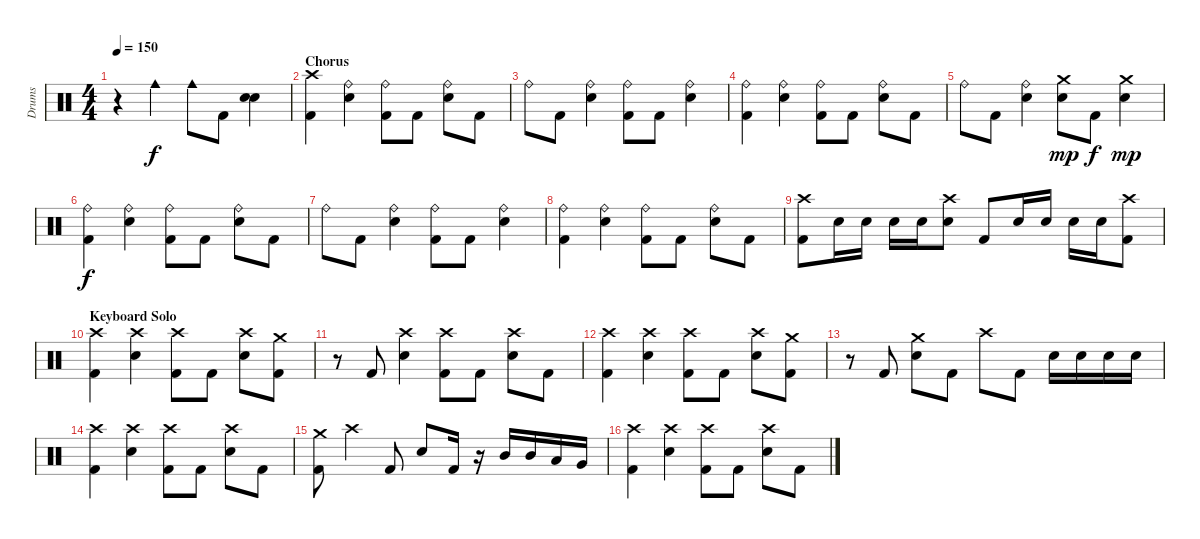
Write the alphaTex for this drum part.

\track ("Drums" "Drums") {instrument percussion}
\staff {score}
\articulation defaults
\ts (4 4)
\tempo 150
\clef neutral
\ks c
r.4{dy f} "Cowbell medium (hit)".4 "Cowbell medium (hit)".8 "Kick (hit) 2".8 ("Snare (hit) 2" "Snare (hit) 2").4 |
\section ("" "Chorus")
("Crash high (hit)" "Kick (hit) 2").4 ("Ride (bell)" "Snare (hit) 2").4 ("Ride (bell)" "Kick (hit) 2").8 "Kick (hit) 2".8 ("Ride (bell)" "Snare (hit) 2").8 "Kick (hit) 2".8 |
"Ride (bell)".8 "Kick (hit) 2".8 ("Ride (bell)" "Snare (hit) 2").4 ("Ride (bell)" "Kick (hit) 2").8 "Kick (hit) 2".8 ("Ride (bell)" "Snare (hit) 2").4 |
("Ride (bell)" "Kick (hit) 2").4 ("Ride (bell)" "Snare (hit) 2").4 ("Ride (bell)" "Kick (hit) 2").8 "Kick (hit) 2".8 ("Ride (bell)" "Snare (hit) 2").8 "Kick (hit) 2".8 |
"Ride (bell)".8 "Kick (hit) 2".8 ("Ride (bell)" "Snare (hit) 2").4 ("Crash medium (hit)" "Snare (hit) 2").8{dy mp} "Kick (hit) 2".8{dy f} ("Crash medium (hit)" "Snare (hit) 2").4{dy mp} |
("Ride (bell)" "Kick (hit) 2").4{dy f} ("Ride (bell)" "Snare (hit) 2").4 ("Ride (bell)" "Kick (hit) 2").8 "Kick (hit) 2".8 ("Ride (bell)" "Snare (hit) 2").8 "Kick (hit) 2".8 |
"Ride (bell)".8 "Kick (hit) 2".8 ("Ride (bell)" "Snare (hit) 2").4 ("Ride (bell)" "Kick (hit) 2").8 "Kick (hit) 2".8 ("Ride (bell)" "Snare (hit) 2").4 |
("Ride (bell)" "Kick (hit) 2").4 ("Ride (bell)" "Snare (hit) 2").4 ("Ride (bell)" "Kick (hit) 2").8 "Kick (hit) 2".8 ("Ride (bell)" "Snare (hit) 2").8 "Kick (hit) 2".8 |
("Crash high (hit)" "Kick (hit) 2").8 "Snare (hit) 2".16 "Snare (hit) 2".16 "Snare (hit) 2".16 "Snare (hit) 2".16 ("Crash high (hit)" "Snare (hit) 2").8 "Kick (hit) 2".8 "Snare (hit) 2".16 "Snare (hit) 2".16 "Snare (hit) 2".16 "Snare (hit) 2".16 ("Crash high (hit)" "Kick (hit) 2").8 |
\section ("" "Keyboard Solo")
("Crash high (hit)" "Kick (hit) 2").4 ("Crash high (hit)" "Snare (hit) 2").4 ("Crash high (hit)" "Kick (hit) 2").8 "Kick (hit) 2".8 ("Crash high (hit)" "Snare (hit) 2").8 ("Crash medium (hit)" "Kick (hit) 2").8 |
r.8 "Kick (hit) 2".8 ("Crash high (hit)" "Snare (hit) 2").4 ("Crash high (hit)" "Kick (hit) 2").8 "Kick (hit) 2".8 ("Crash high (hit)" "Snare (hit) 2").8 "Kick (hit) 2".8 |
("Crash high (hit)" "Kick (hit) 2").4 ("Crash high (hit)" "Snare (hit) 2").4 ("Crash high (hit)" "Kick (hit) 2").8 "Kick (hit) 2".8 ("Crash high (hit)" "Snare (hit) 2").8 ("Crash medium (hit)" "Kick (hit) 2").8 |
r.8 "Kick (hit) 2".8 ("Crash medium (hit)" "Snare (hit) 2").8 "Kick (hit) 2".8 "Crash high (hit)".8 "Kick (hit) 2".8 "Snare (hit) 2".16 "Snare (hit) 2".16 "Snare (hit) 2".16 "Snare (hit) 2".16 |
("Crash high (hit)" "Kick (hit) 2").4 ("Crash high (hit)" "Snare (hit) 2").4 ("Crash high (hit)" "Kick (hit) 2").8 "Kick (hit) 2".8 ("Crash high (hit)" "Snare (hit) 2").8 "Kick (hit) 2".8 |
("Crash medium (hit)" "Kick (hit) 2").8 "Crash high (hit)".4 "Kick (hit) 2".8 "Snare (hit) 2".8 "Kick (hit) 2".16 r.16 "Mid Tom (hit)".16 "Mid Tom (hit)".16 "Low Tom (hit)".16 "Very Low Tom (hit)".16 |
("Crash high (hit)" "Kick (hit) 2").4 ("Crash high (hit)" "Snare (hit) 2").4 ("Crash high (hit)" "Kick (hit) 2").8 "Kick (hit) 2".8 ("Crash high (hit)" "Snare (hit) 2").8 "Kick (hit) 2".8
